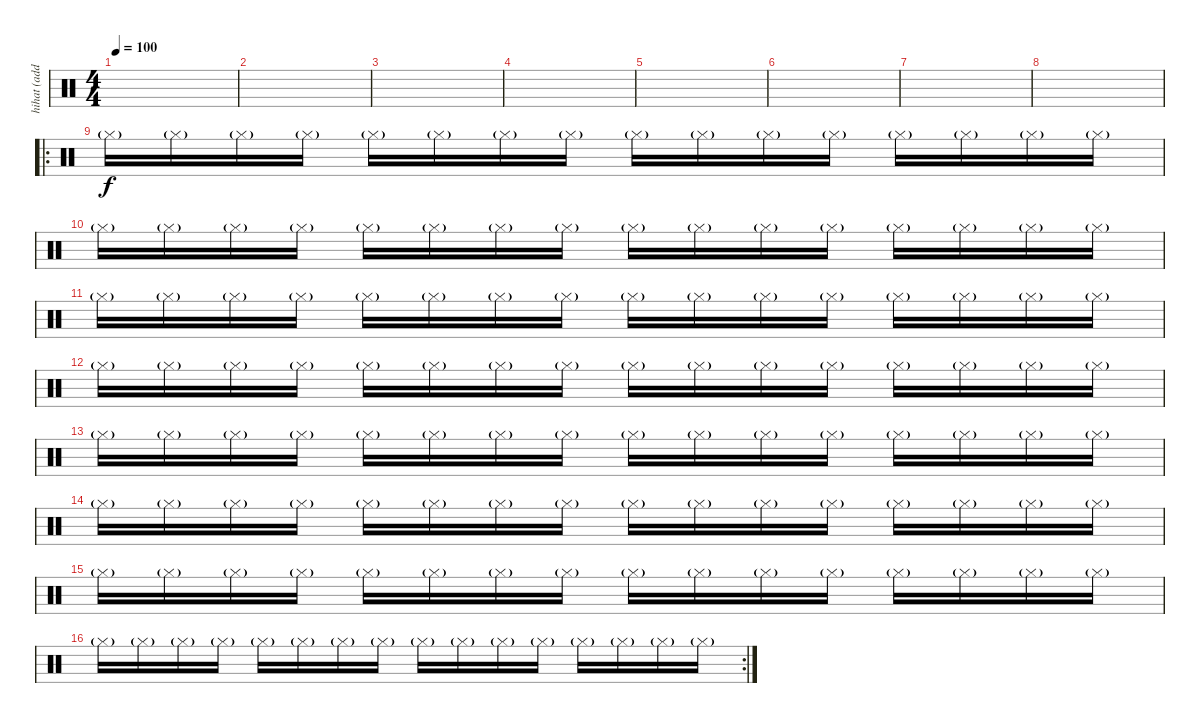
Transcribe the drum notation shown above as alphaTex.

\track ("hihat (additional)" "hihat (add") {instrument percussion}
\staff {score}
\articulation defaults
\ts (4 4)
\tempo 100
\clef neutral
\ks c
|
|
|
|
|
|
|
|
\ro "Hi-Hat (closed)"{g}.16 "Hi-Hat (closed)"{g}.16 "Hi-Hat (closed)"{g}.16 "Hi-Hat (closed)"{g}.16 "Hi-Hat (closed)"{g}.16 "Hi-Hat (closed)"{g}.16 "Hi-Hat (closed)"{g}.16 "Hi-Hat (closed)"{g}.16 "Hi-Hat (closed)"{g}.16 "Hi-Hat (closed)"{g}.16 "Hi-Hat (closed)"{g}.16 "Hi-Hat (closed)"{g}.16 "Hi-Hat (closed)"{g}.16 "Hi-Hat (closed)"{g}.16 "Hi-Hat (closed)"{g}.16 "Hi-Hat (closed)"{g}.16
|
"Hi-Hat (closed)"{g}.16 "Hi-Hat (closed)"{g}.16 "Hi-Hat (closed)"{g}.16 "Hi-Hat (closed)"{g}.16 "Hi-Hat (closed)"{g}.16 "Hi-Hat (closed)"{g}.16 "Hi-Hat (closed)"{g}.16 "Hi-Hat (closed)"{g}.16 "Hi-Hat (closed)"{g}.16 "Hi-Hat (closed)"{g}.16 "Hi-Hat (closed)"{g}.16 "Hi-Hat (closed)"{g}.16 "Hi-Hat (closed)"{g}.16 "Hi-Hat (closed)"{g}.16 "Hi-Hat (closed)"{g}.16 "Hi-Hat (closed)"{g}.16 |
"Hi-Hat (closed)"{g}.16 "Hi-Hat (closed)"{g}.16 "Hi-Hat (closed)"{g}.16 "Hi-Hat (closed)"{g}.16 "Hi-Hat (closed)"{g}.16 "Hi-Hat (closed)"{g}.16 "Hi-Hat (closed)"{g}.16 "Hi-Hat (closed)"{g}.16 "Hi-Hat (closed)"{g}.16 "Hi-Hat (closed)"{g}.16 "Hi-Hat (closed)"{g}.16 "Hi-Hat (closed)"{g}.16 "Hi-Hat (closed)"{g}.16 "Hi-Hat (closed)"{g}.16 "Hi-Hat (closed)"{g}.16 "Hi-Hat (closed)"{g}.16 |
"Hi-Hat (closed)"{g}.16 "Hi-Hat (closed)"{g}.16 "Hi-Hat (closed)"{g}.16 "Hi-Hat (closed)"{g}.16 "Hi-Hat (closed)"{g}.16 "Hi-Hat (closed)"{g}.16 "Hi-Hat (closed)"{g}.16 "Hi-Hat (closed)"{g}.16 "Hi-Hat (closed)"{g}.16 "Hi-Hat (closed)"{g}.16 "Hi-Hat (closed)"{g}.16 "Hi-Hat (closed)"{g}.16 "Hi-Hat (closed)"{g}.16 "Hi-Hat (closed)"{g}.16 "Hi-Hat (closed)"{g}.16 "Hi-Hat (closed)"{g}.16 |
"Hi-Hat (closed)"{g}.16 "Hi-Hat (closed)"{g}.16 "Hi-Hat (closed)"{g}.16 "Hi-Hat (closed)"{g}.16 "Hi-Hat (closed)"{g}.16 "Hi-Hat (closed)"{g}.16 "Hi-Hat (closed)"{g}.16 "Hi-Hat (closed)"{g}.16 "Hi-Hat (closed)"{g}.16 "Hi-Hat (closed)"{g}.16 "Hi-Hat (closed)"{g}.16 "Hi-Hat (closed)"{g}.16 "Hi-Hat (closed)"{g}.16 "Hi-Hat (closed)"{g}.16 "Hi-Hat (closed)"{g}.16 "Hi-Hat (closed)"{g}.16 |
"Hi-Hat (closed)"{g}.16 "Hi-Hat (closed)"{g}.16 "Hi-Hat (closed)"{g}.16 "Hi-Hat (closed)"{g}.16 "Hi-Hat (closed)"{g}.16 "Hi-Hat (closed)"{g}.16 "Hi-Hat (closed)"{g}.16 "Hi-Hat (closed)"{g}.16 "Hi-Hat (closed)"{g}.16 "Hi-Hat (closed)"{g}.16 "Hi-Hat (closed)"{g}.16 "Hi-Hat (closed)"{g}.16 "Hi-Hat (closed)"{g}.16 "Hi-Hat (closed)"{g}.16 "Hi-Hat (closed)"{g}.16 "Hi-Hat (closed)"{g}.16 |
"Hi-Hat (closed)"{g}.16 "Hi-Hat (closed)"{g}.16 "Hi-Hat (closed)"{g}.16 "Hi-Hat (closed)"{g}.16 "Hi-Hat (closed)"{g}.16 "Hi-Hat (closed)"{g}.16 "Hi-Hat (closed)"{g}.16 "Hi-Hat (closed)"{g}.16 "Hi-Hat (closed)"{g}.16 "Hi-Hat (closed)"{g}.16 "Hi-Hat (closed)"{g}.16 "Hi-Hat (closed)"{g}.16 "Hi-Hat (closed)"{g}.16 "Hi-Hat (closed)"{g}.16 "Hi-Hat (closed)"{g}.16 "Hi-Hat (closed)"{g}.16 |
\rc 2 "Hi-Hat (closed)"{g}.16 "Hi-Hat (closed)"{g}.16 "Hi-Hat (closed)"{g}.16 "Hi-Hat (closed)"{g}.16 "Hi-Hat (closed)"{g}.16 "Hi-Hat (closed)"{g}.16 "Hi-Hat (closed)"{g}.16 "Hi-Hat (closed)"{g}.16 "Hi-Hat (closed)"{g}.16 "Hi-Hat (closed)"{g}.16 "Hi-Hat (closed)"{g}.16 "Hi-Hat (closed)"{g}.16 "Hi-Hat (closed)"{g}.16 "Hi-Hat (closed)"{g}.16 "Hi-Hat (closed)"{g}.16 "Hi-Hat (closed)"{g}.16
